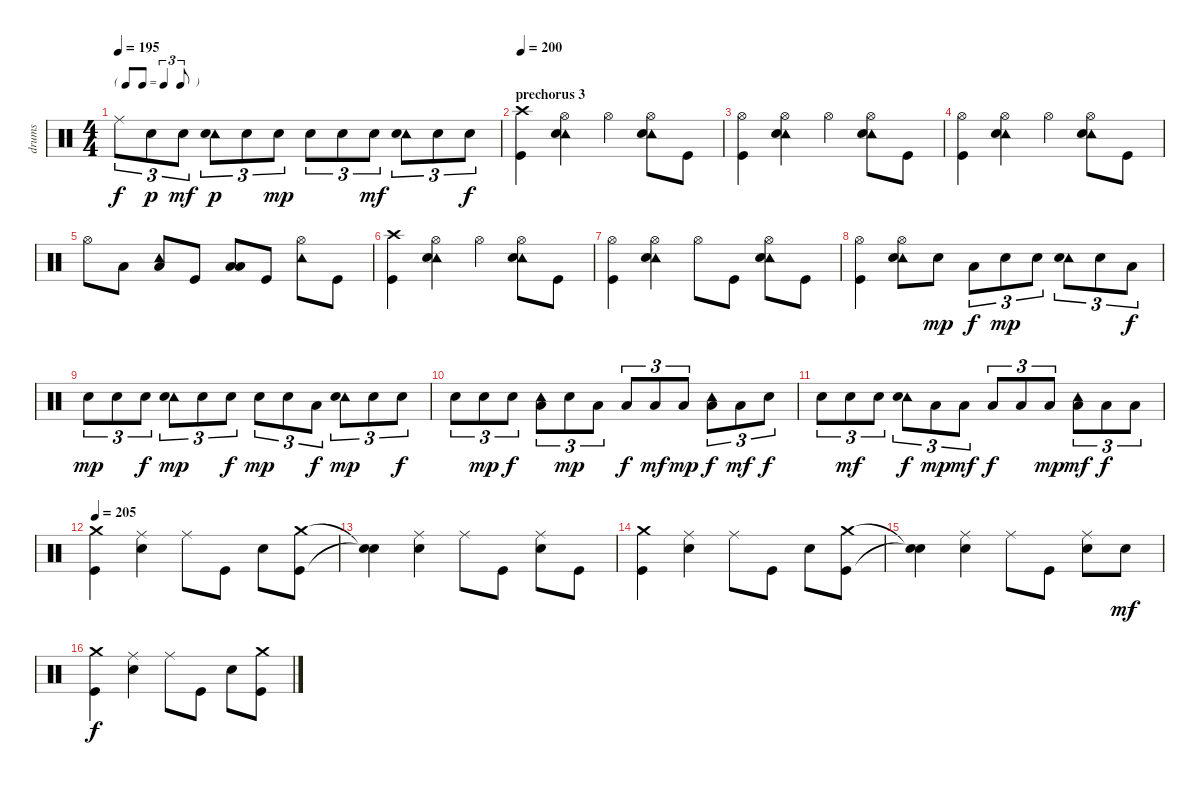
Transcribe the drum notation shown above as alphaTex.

\track ("drums" "drums") {instrument percussion}
\staff {score}
\articulation defaults
\ts (4 4)
\tf triplet8th
\tempo 195
\clef neutral
\ks c "Ride (middle)".8{tu (3 2) dy f} "Snare (hit) 2".8{tu (3 2) dy p} "Snare (hit) 2".8{tu (3 2) dy mf}
("Tambourine (hit)" "Snare (hit) 2").8{tu (3 2) dy p} "Snare (hit) 2".8{tu (3 2)} "Snare (hit) 2".8{tu (3 2) dy mp} "Snare (hit) 2".8{tu (3 2)} "Snare (hit) 2".8{tu (3 2)} "Snare (hit) 2".8{tu (3 2) dy mf} ("Tambourine (hit)" "Snare (hit) 2").8{tu (3 2)} "Snare (hit) 2".8{tu (3 2)} "Snare (hit) 2".8{tu (3 2) dy f} |
\section ("" "prechorus 3")
\tempo 200
("Crash high (hit)" "Kick (hit)").4 ("Tambourine (hit)" "Hi-Hat (open)" "Snare (hit) 2").4 "Hi-Hat (open)".4 ("Tambourine (hit)" "Hi-Hat (open)" "Snare (hit) 2").8 "Kick (hit)".8 |
("Hi-Hat (open)" "Kick (hit)").4 ("Tambourine (hit)" "Hi-Hat (open)" "Snare (hit) 2").4 "Hi-Hat (open)".4 ("Tambourine (hit)" "Hi-Hat (open)" "Snare (hit) 2").8 "Kick (hit)".8 |
("Hi-Hat (open)" "Kick (hit)").4 ("Tambourine (hit)" "Hi-Hat (open)" "Snare (hit) 2").4 "Hi-Hat (open)".4 ("Tambourine (hit)" "Hi-Hat (open)" "Snare (hit) 2").8 "Kick (hit)".8 |
"Hi-Hat (open)".8 "Low Tom (hit)".8 ("Tambourine (hit)" "Low Floor Tom (hit)").8 "Kick (hit)".8 ("Low Tom (hit)" "Low Floor Tom (hit)").8 "Kick (hit)".8 ("Tambourine (hit)" "Hi-Hat (open)").8 "Kick (hit)".8 |
("Crash high (hit)" "Kick (hit)").4 ("Tambourine (hit)" "Hi-Hat (open)" "Snare (hit) 2").4 "Hi-Hat (open)".4 ("Tambourine (hit)" "Hi-Hat (open)" "Snare (hit) 2").8 "Kick (hit)".8 |
("Hi-Hat (open)" "Kick (hit)").4 ("Tambourine (hit)" "Hi-Hat (open)" "Snare (hit) 2").4 "Hi-Hat (open)".8 "Kick (hit)".8 ("Tambourine (hit)" "Hi-Hat (open)" "Snare (hit) 2").8 "Kick (hit)".8 |
("Hi-Hat (open)" "Kick (hit)").4 ("Tambourine (hit)" "Hi-Hat (open)" "Snare (hit) 2").8 "Snare (hit) 2".8{dy mp} "Low Tom (hit)".8{tu (3 2) dy f} "Snare (hit) 2".8{tu (3 2) dy mp} "Snare (hit) 2".8{tu (3 2)} ("Tambourine (hit)" "Snare (hit) 2").8{tu (3 2)} "Snare (hit) 2".8{tu (3 2)} "Low Tom (hit)".8{tu (3 2) dy f} |
"Snare (hit) 2".8{tu (3 2) dy mp} "Snare (hit) 2".8{tu (3 2)} "Snare (hit) 2".8{tu (3 2) dy f} ("Tambourine (hit)" "Snare (hit) 2").8{tu (3 2) dy mp} "Snare (hit) 2".8{tu (3 2)} "Snare (hit) 2".8{tu (3 2) dy f} "Snare (hit) 2".8{tu (3 2) dy mp} "Snare (hit) 2".8{tu (3 2)} "Low Tom (hit)".8{tu (3 2) dy f} ("Tambourine (hit)" "Snare (hit) 2").8{tu (3 2) dy mp} "Snare (hit) 2".8{tu (3 2)} "Snare (hit) 2".8{tu (3 2) dy f} |
"Snare (hit) 2".8{tu (3 2)} "Snare (hit) 2".8{tu (3 2) dy mp} "Snare (hit) 2".8{tu (3 2) dy f} ("Tambourine (hit)" "Low Tom (hit)").8{tu (3 2)} "Snare (hit) 2".8{tu (3 2) dy mp} "Low Tom (hit)".8{tu (3 2)} "Low Tom (hit)".8{tu (3 2) dy f} "Low Tom (hit)".8{tu (3 2) dy mf} "Low Floor Tom (hit)".8{tu (3 2) dy mp} ("Tambourine (hit)" "Low Floor Tom (hit)").8{tu (3 2) dy f} "Low Floor Tom (hit)".8{tu (3 2) dy mf} "Snare (hit) 2".8{tu (3 2) dy f} |
"Snare (hit) 2".8{tu (3 2)} "Snare (hit) 2".8{tu (3 2) dy mf} "Snare (hit) 2".8{tu (3 2)} ("Tambourine (hit)" "Snare (hit) 2").8{tu (3 2) dy f} "Low Tom (hit)".8{tu (3 2) dy mp} "Low Tom (hit)".8{tu (3 2) dy mf} "Low Tom (hit)".8{tu (3 2) dy f} "Low Tom (hit)".8{tu (3 2)} "Low Floor Tom (hit)".8{tu (3 2) dy mp} ("Tambourine (hit)" "Low Floor Tom (hit)").8{tu (3 2) dy mf} "Low Floor Tom (hit)".8{tu (3 2) dy f} "Low Floor Tom (hit)".8{tu (3 2)} |
\tempo 205
("Crash medium (hit)" "Kick (hit)").4 ("Ride (middle)" "Snare (hit) 2").4 "Ride (middle)".8 "Kick (hit)".8 "Snare (hit) 2".8 ("Crash medium (hit)" "Kick (hit)").8 |
("Snare (hit)"{t} "Snare (hit)"{t}).4 ("Ride (middle)" "Snare (hit) 2").4 "Ride (middle)".8 "Kick (hit)".8 ("Ride (middle)" "Snare (hit) 2").8 "Kick (hit)".8 |
("Crash medium (hit)" "Kick (hit)").4 ("Ride (middle)" "Snare (hit) 2").4 "Ride (middle)".8 "Kick (hit)".8 "Snare (hit) 2".8 ("Crash medium (hit)" "Kick (hit)").8 |
("Snare (hit)"{t} "Snare (hit)"{t}).4 ("Ride (middle)" "Snare (hit) 2").4 "Ride (middle)".8 "Kick (hit)".8 ("Ride (middle)" "Snare (hit) 2").8 "Snare (hit) 2".8{dy mf} |
("Crash medium (hit)" "Kick (hit)").4{dy f} ("Ride (middle)" "Snare (hit) 2").4 "Ride (middle)".8 "Kick (hit)".8 "Snare (hit) 2".8 ("Crash medium (hit)" "Kick (hit)").8
